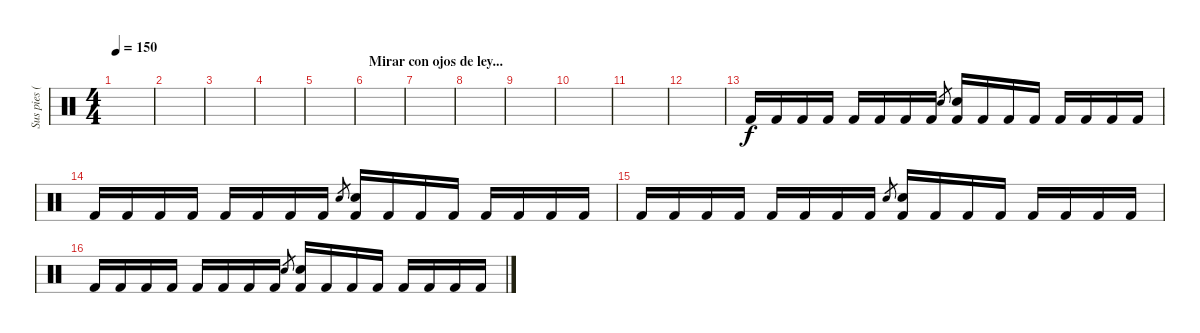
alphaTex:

\track ("Sus pies (a veces)" "Sus pies (") {instrument percussion}
\staff {score}
\articulation defaults
\ts (4 4)
\tempo 150
\clef neutral
\ks c
|
|
|
|
|
\section ("" "Mirar con ojos de ley...")
|
|
|
|
|
|
|
"Kick (hit) 2".16 "Kick (hit) 2".16 "Kick (hit) 2".16 "Kick (hit) 2".16 "Kick (hit) 2".16 "Kick (hit) 2".16 "Kick (hit) 2".16 "Kick (hit) 2".16 "Electric Snare (hit)".8{gr} ("Electric Snare (hit)" "Kick (hit) 2").16 "Kick (hit) 2".16 "Kick (hit) 2".16 "Kick (hit) 2".16 "Kick (hit) 2".16 "Kick (hit) 2".16 "Kick (hit) 2".16 "Kick (hit) 2".16 |
"Kick (hit) 2".16 "Kick (hit) 2".16 "Kick (hit) 2".16 "Kick (hit) 2".16 "Kick (hit) 2".16 "Kick (hit) 2".16 "Kick (hit) 2".16 "Kick (hit) 2".16 "Electric Snare (hit)".8{gr} ("Electric Snare (hit)" "Kick (hit) 2").16 "Kick (hit) 2".16 "Kick (hit) 2".16 "Kick (hit) 2".16 "Kick (hit) 2".16 "Kick (hit) 2".16 "Kick (hit) 2".16 "Kick (hit) 2".16 |
"Kick (hit) 2".16 "Kick (hit) 2".16 "Kick (hit) 2".16 "Kick (hit) 2".16 "Kick (hit) 2".16 "Kick (hit) 2".16 "Kick (hit) 2".16 "Kick (hit) 2".16 "Electric Snare (hit)".8{gr} ("Electric Snare (hit)" "Kick (hit) 2").16 "Kick (hit) 2".16 "Kick (hit) 2".16 "Kick (hit) 2".16 "Kick (hit) 2".16 "Kick (hit) 2".16 "Kick (hit) 2".16 "Kick (hit) 2".16 |
"Kick (hit) 2".16 "Kick (hit) 2".16 "Kick (hit) 2".16 "Kick (hit) 2".16 "Kick (hit) 2".16 "Kick (hit) 2".16 "Kick (hit) 2".16 "Kick (hit) 2".16 "Electric Snare (hit)".8{gr} ("Electric Snare (hit)" "Kick (hit) 2").16 "Kick (hit) 2".16 "Kick (hit) 2".16 "Kick (hit) 2".16 "Kick (hit) 2".16 "Kick (hit) 2".16 "Kick (hit) 2".16 "Kick (hit) 2".16
